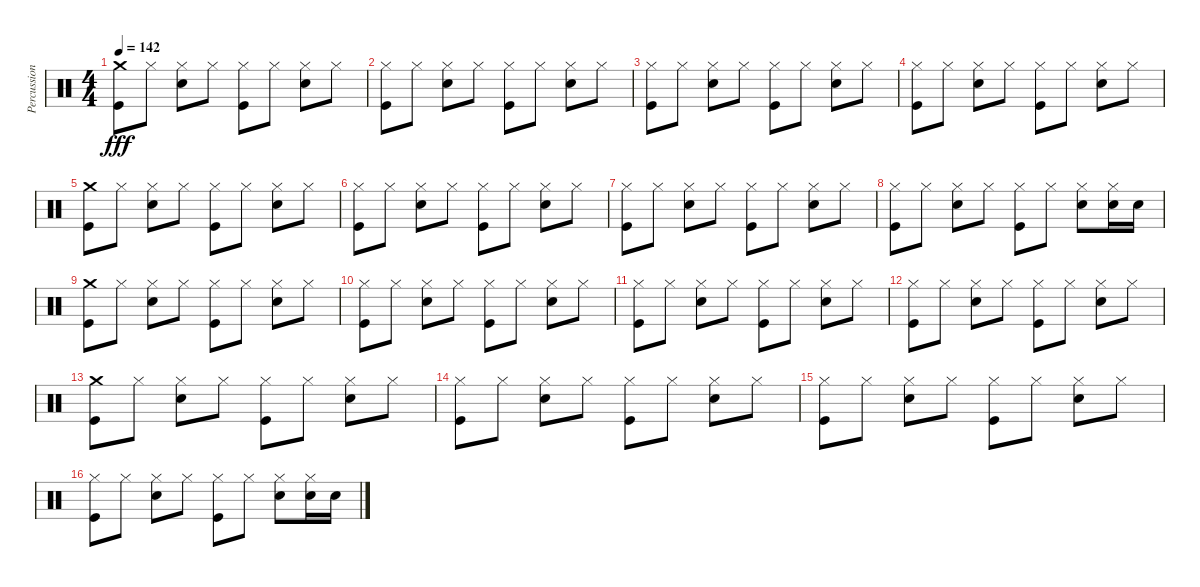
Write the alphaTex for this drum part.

\track ("Percussions" "Percussion") {instrument percussion}
\staff {score}
\articulation defaults
\ts (4 4)
\tempo 142
\clef neutral
\ks c
("Crash medium (hit)" "Kick (hit)").8{dy fff} "Hi-Hat (closed)".8 ("Hi-Hat (closed)" "Snare (hit) 2").8 "Hi-Hat (closed)".8 ("Hi-Hat (closed)" "Kick (hit)").8 "Hi-Hat (closed)".8 ("Hi-Hat (closed)" "Snare (hit) 2").8 "Hi-Hat (closed)".8 |
("Hi-Hat (closed)" "Kick (hit)").8 "Hi-Hat (closed)".8 ("Hi-Hat (closed)" "Snare (hit) 2").8 "Hi-Hat (closed)".8 ("Hi-Hat (closed)" "Kick (hit)").8 "Hi-Hat (closed)".8 ("Hi-Hat (closed)" "Snare (hit) 2").8 "Hi-Hat (closed)".8 |
("Hi-Hat (closed)" "Kick (hit)").8 "Hi-Hat (closed)".8 ("Hi-Hat (closed)" "Snare (hit) 2").8 "Hi-Hat (closed)".8 ("Hi-Hat (closed)" "Kick (hit)").8 "Hi-Hat (closed)".8 ("Hi-Hat (closed)" "Snare (hit) 2").8 "Hi-Hat (closed)".8 |
("Hi-Hat (closed)" "Kick (hit)").8 "Hi-Hat (closed)".8 ("Hi-Hat (closed)" "Snare (hit) 2").8 "Hi-Hat (closed)".8 ("Hi-Hat (closed)" "Kick (hit)").8 "Hi-Hat (closed)".8 ("Hi-Hat (closed)" "Snare (hit) 2").8 "Hi-Hat (closed)".8 |
("Crash medium (hit)" "Kick (hit)").8 "Hi-Hat (closed)".8 ("Hi-Hat (closed)" "Snare (hit) 2").8 "Hi-Hat (closed)".8 ("Hi-Hat (closed)" "Kick (hit)").8 "Hi-Hat (closed)".8 ("Hi-Hat (closed)" "Snare (hit) 2").8 "Hi-Hat (closed)".8 |
("Hi-Hat (closed)" "Kick (hit)").8 "Hi-Hat (closed)".8 ("Hi-Hat (closed)" "Snare (hit) 2").8 "Hi-Hat (closed)".8 ("Hi-Hat (closed)" "Kick (hit)").8 "Hi-Hat (closed)".8 ("Hi-Hat (closed)" "Snare (hit) 2").8 "Hi-Hat (closed)".8 |
("Hi-Hat (closed)" "Kick (hit)").8 "Hi-Hat (closed)".8 ("Hi-Hat (closed)" "Snare (hit) 2").8 "Hi-Hat (closed)".8 ("Hi-Hat (closed)" "Kick (hit)").8 "Hi-Hat (closed)".8 ("Hi-Hat (closed)" "Snare (hit) 2").8 "Hi-Hat (closed)".8 |
("Hi-Hat (closed)" "Kick (hit)").8 "Hi-Hat (closed)".8 ("Hi-Hat (closed)" "Snare (hit) 2").8 "Hi-Hat (closed)".8 ("Hi-Hat (closed)" "Kick (hit)").8 "Hi-Hat (closed)".8 ("Hi-Hat (closed)" "Snare (hit) 2").8 ("Hi-Hat (closed)" "Snare (hit) 2").16 "Snare (hit) 2".16 |
("Crash medium (hit)" "Kick (hit)").8 "Hi-Hat (closed)".8 ("Hi-Hat (closed)" "Snare (hit) 2").8 "Hi-Hat (closed)".8 ("Hi-Hat (closed)" "Kick (hit)").8 "Hi-Hat (closed)".8 ("Hi-Hat (closed)" "Snare (hit) 2").8 "Hi-Hat (closed)".8 |
("Hi-Hat (closed)" "Kick (hit)").8 "Hi-Hat (closed)".8 ("Hi-Hat (closed)" "Snare (hit) 2").8 "Hi-Hat (closed)".8 ("Hi-Hat (closed)" "Kick (hit)").8 "Hi-Hat (closed)".8 ("Hi-Hat (closed)" "Snare (hit) 2").8 "Hi-Hat (closed)".8 |
("Hi-Hat (closed)" "Kick (hit)").8 "Hi-Hat (closed)".8 ("Hi-Hat (closed)" "Snare (hit) 2").8 "Hi-Hat (closed)".8 ("Hi-Hat (closed)" "Kick (hit)").8 "Hi-Hat (closed)".8 ("Hi-Hat (closed)" "Snare (hit) 2").8 "Hi-Hat (closed)".8 |
("Hi-Hat (closed)" "Kick (hit)").8 "Hi-Hat (closed)".8 ("Hi-Hat (closed)" "Snare (hit) 2").8 "Hi-Hat (closed)".8 ("Hi-Hat (closed)" "Kick (hit)").8 "Hi-Hat (closed)".8 ("Hi-Hat (closed)" "Snare (hit) 2").8 "Hi-Hat (closed)".8 |
("Crash medium (hit)" "Kick (hit)").8 "Hi-Hat (closed)".8 ("Hi-Hat (closed)" "Snare (hit) 2").8 "Hi-Hat (closed)".8 ("Hi-Hat (closed)" "Kick (hit)").8 "Hi-Hat (closed)".8 ("Hi-Hat (closed)" "Snare (hit) 2").8 "Hi-Hat (closed)".8 |
("Hi-Hat (closed)" "Kick (hit)").8 "Hi-Hat (closed)".8 ("Hi-Hat (closed)" "Snare (hit) 2").8 "Hi-Hat (closed)".8 ("Hi-Hat (closed)" "Kick (hit)").8 "Hi-Hat (closed)".8 ("Hi-Hat (closed)" "Snare (hit) 2").8 "Hi-Hat (closed)".8 |
("Hi-Hat (closed)" "Kick (hit)").8 "Hi-Hat (closed)".8 ("Hi-Hat (closed)" "Snare (hit) 2").8 "Hi-Hat (closed)".8 ("Hi-Hat (closed)" "Kick (hit)").8 "Hi-Hat (closed)".8 ("Hi-Hat (closed)" "Snare (hit) 2").8 "Hi-Hat (closed)".8 |
("Hi-Hat (closed)" "Kick (hit)").8 "Hi-Hat (closed)".8 ("Hi-Hat (closed)" "Snare (hit) 2").8 "Hi-Hat (closed)".8 ("Hi-Hat (closed)" "Kick (hit)").8 "Hi-Hat (closed)".8 ("Hi-Hat (closed)" "Snare (hit) 2").8 ("Hi-Hat (closed)" "Snare (hit) 2").16 "Snare (hit) 2".16
